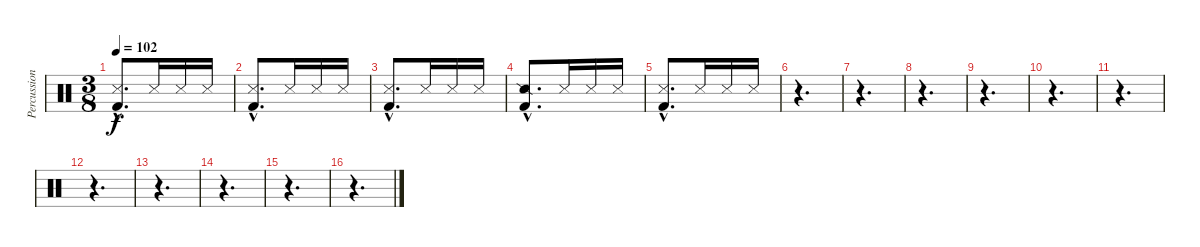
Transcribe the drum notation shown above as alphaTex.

\track ("Percussions" "Percussion") {instrument percussion}
\staff {score}
\articulation defaults
\ts (3 8)
\tempo 102
\clef neutral
\ks c
("Snare (side stick) 3"{hac} "Kick (hit) 2"{hac}).8{d dy f} "Snare (side stick) 3".16 "Snare (side stick) 3".16 "Snare (side stick) 3".16 |
("Snare (side stick) 3"{hac} "Kick (hit) 2"{hac}).8{d} "Snare (side stick) 3".16 "Snare (side stick) 3".16 "Snare (side stick) 3".16 |
("Snare (side stick) 3"{hac} "Kick (hit) 2"{hac}).8{d} "Snare (side stick) 3".16 "Snare (side stick) 3".16 "Snare (side stick) 3".16 |
("Snare (side stick) 2"{hac} "Kick (hit) 2"{hac}).8{d} "Snare (side stick) 3".16 "Snare (side stick) 3".16 "Snare (side stick) 3".16 |
("Snare (side stick) 3"{hac} "Kick (hit) 2"{hac}).8{d} "Snare (side stick) 3".16 "Snare (side stick) 3".16 "Snare (side stick) 3".16 |
r.4{d} |
r.4{d} |
r.4{d} |
r.4{d} |
r.4{d} |
r.4{d} |
r.4{d} |
r.4{d} |
r.4{d} |
r.4{d} |
r.4{d}
